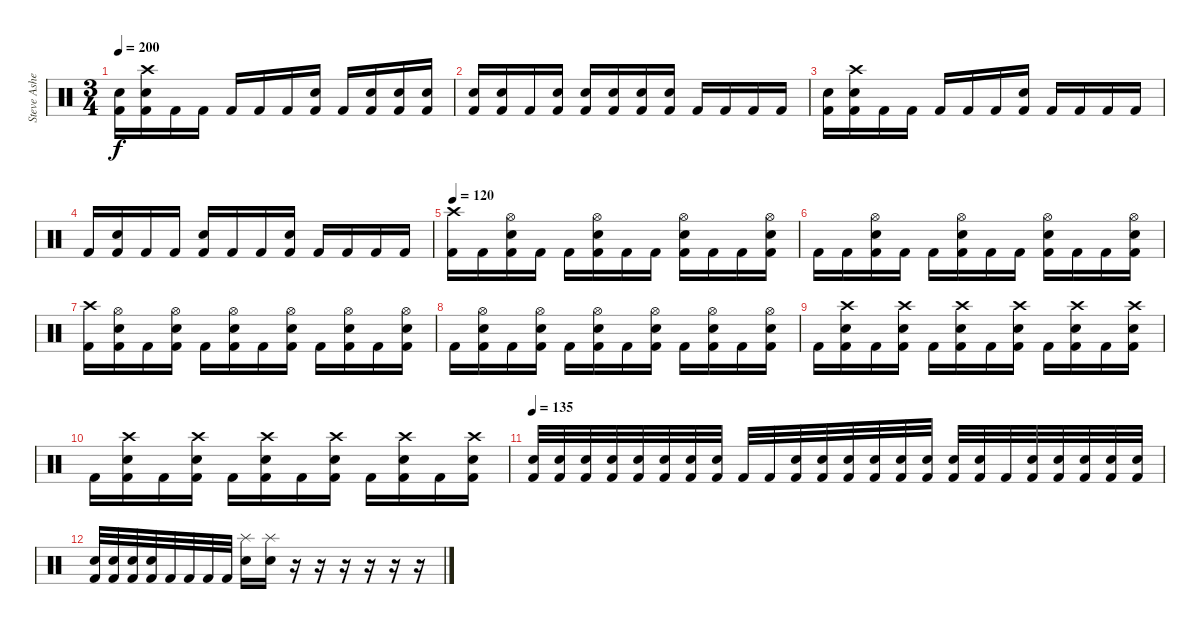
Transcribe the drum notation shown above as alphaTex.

\track ("Steve Asheim" "Steve Ashe") {instrument percussion}
\staff {score}
\articulation defaults
\ts (3 4)
\tempo 200
\clef neutral
\ks c
("Electric Snare (hit)" "Kick (hit) 2").16{dy f} ("Crash high (hit)" "Electric Snare (hit)" "Kick (hit) 2").16 "Kick (hit) 2".16 "Kick (hit) 2".16 "Kick (hit) 2".16 "Kick (hit) 2".16 "Kick (hit) 2".16 ("Electric Snare (hit)" "Kick (hit) 2").16 "Kick (hit) 2".16 ("Snare (hit) 2" "Kick (hit) 2").16 ("Snare (hit) 2" "Kick (hit) 2").16 ("Snare (hit) 2" "Kick (hit) 2").16 |
("Snare (hit) 2" "Kick (hit) 2").16 ("Electric Snare (hit)" "Kick (hit) 2").16 "Kick (hit) 2".16 ("Snare (hit) 2" "Kick (hit) 2").16 ("Snare (hit) 2" "Kick (hit) 2").16 ("Snare (hit) 2" "Kick (hit) 2").16 ("Snare (hit) 2" "Kick (hit) 2").16 ("Electric Snare (hit)" "Kick (hit) 2").16 "Kick (hit) 2".16 "Kick (hit) 2".16 "Kick (hit) 2".16 "Kick (hit) 2".16 |
("Electric Snare (hit)" "Kick (hit) 2").16 ("Crash high (hit)" "Electric Snare (hit)" "Kick (hit) 2").16 "Kick (hit) 2".16 "Kick (hit) 2".16 "Kick (hit) 2".16 "Kick (hit) 2".16 "Kick (hit) 2".16 ("Electric Snare (hit)" "Kick (hit) 2").16 "Kick (hit) 2".16 "Kick (hit) 2".16 "Kick (hit) 2".16 "Kick (hit) 2".16 |
"Kick (hit) 2".16 ("Electric Snare (hit)" "Kick (hit) 2").16 "Kick (hit) 2".16 "Kick (hit) 2".16 ("Electric Snare (hit)" "Kick (hit) 2").16 "Kick (hit) 2".16 "Kick (hit) 2".16 ("Electric Snare (hit)" "Kick (hit) 2").16 "Kick (hit) 2".16 "Kick (hit) 2".16 "Kick (hit) 2".16 "Kick (hit) 2".16 |
\tempo 120
("Crash high (hit)" "Kick (hit) 2").16 "Kick (hit) 2".16 ("Hi-Hat (open)" "Electric Snare (hit)" "Kick (hit) 2").16 "Kick (hit) 2".16 "Kick (hit) 2".16 ("Hi-Hat (open)" "Electric Snare (hit)" "Kick (hit) 2").16 "Kick (hit) 2".16 "Kick (hit) 2".16 ("Hi-Hat (open)" "Electric Snare (hit)" "Kick (hit) 2").16 "Kick (hit) 2".16 "Kick (hit) 2".16 ("Hi-Hat (open)" "Electric Snare (hit)" "Kick (hit) 2").16 |
"Kick (hit) 2".16 "Kick (hit) 2".16 ("Hi-Hat (open)" "Electric Snare (hit)" "Kick (hit) 2").16 "Kick (hit) 2".16 "Kick (hit) 2".16 ("Hi-Hat (open)" "Electric Snare (hit)" "Kick (hit) 2").16 "Kick (hit) 2".16 "Kick (hit) 2".16 ("Hi-Hat (open)" "Electric Snare (hit)" "Kick (hit) 2").16 "Kick (hit) 2".16 "Kick (hit) 2".16 ("Hi-Hat (open)" "Electric Snare (hit)" "Kick (hit) 2").16 |
("Crash high (hit)" "Kick (hit) 2").16 ("Hi-Hat (open)" "Electric Snare (hit)" "Kick (hit) 2").16 "Kick (hit) 2".16 ("Hi-Hat (open)" "Electric Snare (hit)" "Kick (hit) 2").16 "Kick (hit) 2".16 ("Hi-Hat (open)" "Electric Snare (hit)" "Kick (hit) 2").16 "Kick (hit) 2".16 ("Hi-Hat (open)" "Electric Snare (hit)" "Kick (hit) 2").16 "Kick (hit) 2".16 ("Hi-Hat (open)" "Electric Snare (hit)" "Kick (hit) 2").16 "Kick (hit) 2".16 ("Hi-Hat (open)" "Electric Snare (hit)" "Kick (hit) 2").16 |
"Kick (hit) 2".16 ("Hi-Hat (open)" "Electric Snare (hit)" "Kick (hit) 2").16 "Kick (hit) 2".16 ("Hi-Hat (open)" "Electric Snare (hit)" "Kick (hit) 2").16 "Kick (hit) 2".16 ("Hi-Hat (open)" "Electric Snare (hit)" "Kick (hit) 2").16 "Kick (hit) 2".16 ("Hi-Hat (open)" "Electric Snare (hit)" "Kick (hit) 2").16 "Kick (hit) 2".16 ("Hi-Hat (open)" "Electric Snare (hit)" "Kick (hit) 2").16 "Kick (hit) 2".16 ("Hi-Hat (open)" "Electric Snare (hit)" "Kick (hit) 2").16 |
"Kick (hit) 2".16 ("Crash high (hit)" "Electric Snare (hit)" "Kick (hit) 2").16 "Kick (hit) 2".16 ("Crash high (hit)" "Electric Snare (hit)" "Kick (hit) 2").16 "Kick (hit) 2".16 ("Crash high (hit)" "Electric Snare (hit)" "Kick (hit) 2").16 "Kick (hit) 2".16 ("Crash high (hit)" "Electric Snare (hit)" "Kick (hit) 2").16 "Kick (hit) 2".16 ("Crash high (hit)" "Electric Snare (hit)" "Kick (hit) 2").16 "Kick (hit) 2".16 ("Crash high (hit)" "Electric Snare (hit)" "Kick (hit) 2").16 |
"Kick (hit) 2".16 ("Crash high (hit)" "Electric Snare (hit)" "Kick (hit) 2").16 "Kick (hit) 2".16 ("Crash high (hit)" "Electric Snare (hit)" "Kick (hit) 2").16 "Kick (hit) 2".16 ("Crash high (hit)" "Electric Snare (hit)" "Kick (hit) 2").16 "Kick (hit) 2".16 ("Crash high (hit)" "Electric Snare (hit)" "Kick (hit) 2").16 "Kick (hit) 2".16 ("Crash high (hit)" "Electric Snare (hit)" "Kick (hit) 2").16 "Kick (hit) 2".16 ("Crash high (hit)" "Electric Snare (hit)" "Kick (hit) 2").16 |
\tempo 135
("Electric Snare (hit)" "Kick (hit) 2").32 ("Electric Snare (hit)" "Kick (hit) 2").32 ("Electric Snare (hit)" "Kick (hit) 2").32 ("Electric Snare (hit)" "Kick (hit) 2").32 ("Electric Snare (hit)" "Kick (hit) 2").32 ("Electric Snare (hit)" "Kick (hit) 2").32 ("Electric Snare (hit)" "Kick (hit) 2").32 ("Electric Snare (hit)" "Kick (hit) 2").32 "Kick (hit) 2".32 "Kick (hit) 2".32 ("Electric Snare (hit)" "Kick (hit) 2").32 ("Electric Snare (hit)" "Kick (hit) 2").32 ("Electric Snare (hit)" "Kick (hit) 2").32 ("Electric Snare (hit)" "Kick (hit) 2").32 ("Electric Snare (hit)" "Kick (hit) 2").32 ("Electric Snare (hit)" "Kick (hit) 2").32 ("Electric Snare (hit)" "Kick (hit) 2").32 ("Electric Snare (hit)" "Kick (hit) 2").32 "Kick (hit) 2".32 ("Electric Snare (hit)" "Kick (hit) 2").32 ("Electric Snare (hit)" "Kick (hit) 2").32 ("Electric Snare (hit)" "Kick (hit) 2").32 ("Electric Snare (hit)" "Kick (hit) 2").32 ("Electric Snare (hit)" "Kick (hit) 2").32 |
("Electric Snare (hit)" "Kick (hit) 2").32 ("Electric Snare (hit)" "Kick (hit) 2").32 ("Electric Snare (hit)" "Kick (hit) 2").32 ("Electric Snare (hit)" "Kick (hit) 2").32 "Kick (hit) 2".32 "Kick (hit) 2".32 "Kick (hit) 2".32 "Kick (hit) 2".32 ("Splash (hit)" "Electric Snare (hit)").16 ("Splash (hit)" "Electric Snare (hit)").16 r.16 r.16 r.16 r.16 r.16 r.16
